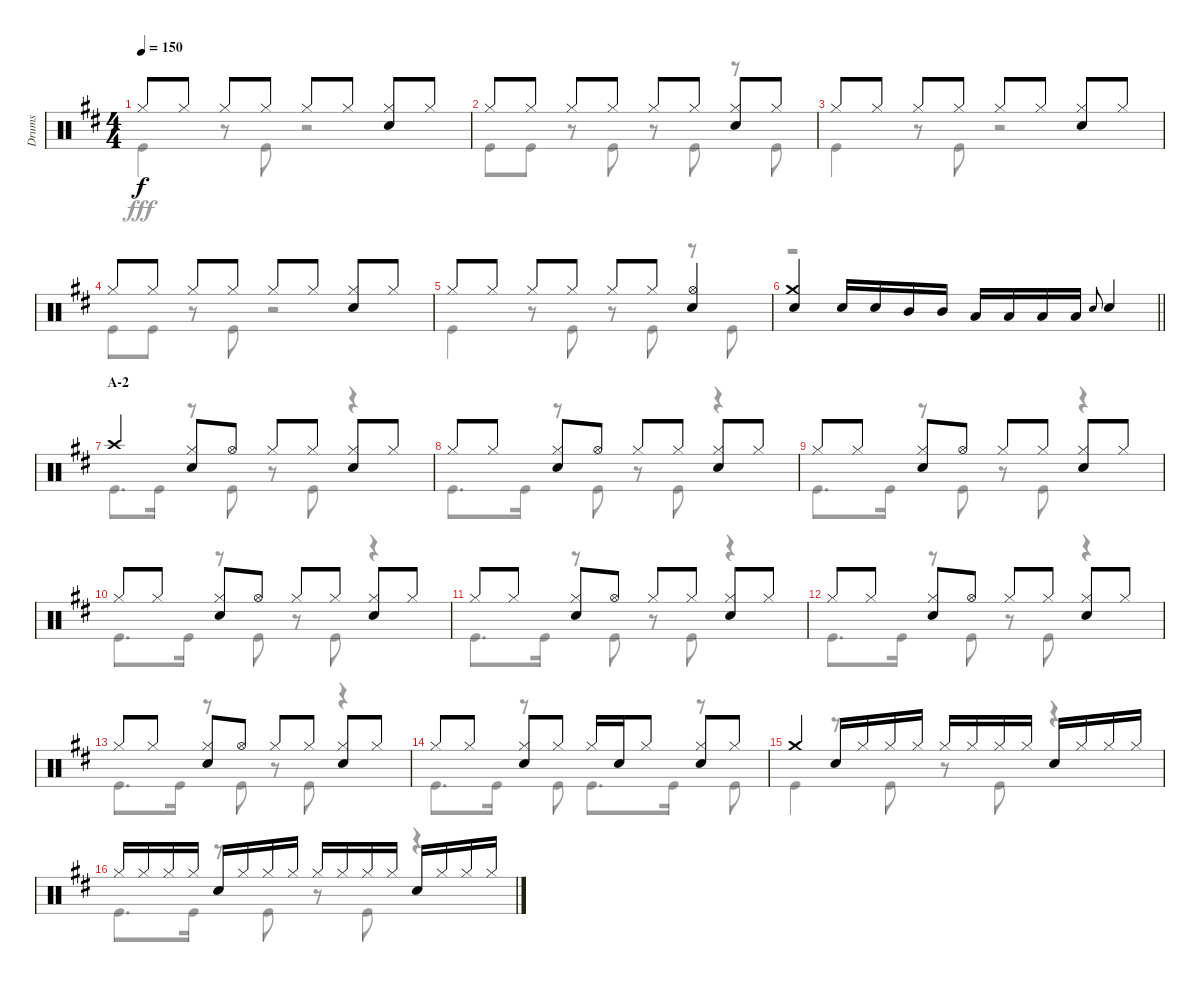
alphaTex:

\track ("Drums" "Drums") {instrument percussion}
\staff {score}
\articulation defaults
\voice
\ts (4 4)
\tempo 150
\clef neutral
\ks d "Hi-Hat (closed)".8{dy f} "Hi-Hat (closed)".8 "Hi-Hat (closed)".8 "Hi-Hat (closed)".8 "Hi-Hat (closed)".8 "Hi-Hat (closed)".8
("Hi-Hat (closed)" "Snare (hit) 2").8 "Hi-Hat (closed)".8 |
"Hi-Hat (closed)".8 "Hi-Hat (closed)".8 "Hi-Hat (closed)".8 "Hi-Hat (closed)".8 "Hi-Hat (closed)".8 "Hi-Hat (closed)".8 ("Hi-Hat (closed)" "Snare (hit) 2").8 "Hi-Hat (closed)".8 |
"Hi-Hat (closed)".8 "Hi-Hat (closed)".8 "Hi-Hat (closed)".8 "Hi-Hat (closed)".8 "Hi-Hat (closed)".8 "Hi-Hat (closed)".8 ("Hi-Hat (closed)" "Snare (hit) 2").8 "Hi-Hat (closed)".8 |
"Hi-Hat (closed)".8 "Hi-Hat (closed)".8 "Hi-Hat (closed)".8 "Hi-Hat (closed)".8 "Hi-Hat (closed)".8 "Hi-Hat (closed)".8 ("Hi-Hat (closed)" "Snare (hit) 2").8 "Hi-Hat (closed)".8 |
"Hi-Hat (closed)".8 "Hi-Hat (closed)".8 "Hi-Hat (closed)".8 "Hi-Hat (closed)".8 "Hi-Hat (closed)".8 "Hi-Hat (closed)".8 ("Hi-Hat (open)" "Snare (hit) 2").4 |
\barLineRight lightlight
("Crash medium (hit)" "Snare (hit) 2").4 "Snare (hit) 2".16 "Snare (hit) 2".16 "Mid Tom (hit)".16 "Mid Tom (hit)".16 "Low Tom (hit)".16 "Low Tom (hit)".16 "Low Tom (hit)".16 "Low Tom (hit)".16 "Snare (hit) 2".8{gr onbeat} "Snare (hit) 2".4 |
\section ("" "A-2")
"Crash high (hit)".4 ("Hi-Hat (closed)" "Snare (hit) 2").8 "Hi-Hat (open)".8 "Hi-Hat (closed)".8 "Hi-Hat (closed)".8 ("Hi-Hat (closed)" "Snare (hit) 2").8 "Hi-Hat (closed)".8 |
"Hi-Hat (closed)".8 "Hi-Hat (closed)".8 ("Hi-Hat (closed)" "Snare (hit) 2").8 "Hi-Hat (open)".8 "Hi-Hat (closed)".8 "Hi-Hat (closed)".8 ("Hi-Hat (closed)" "Snare (hit) 2").8 "Hi-Hat (closed)".8 |
"Hi-Hat (closed)".8 "Hi-Hat (closed)".8 ("Hi-Hat (closed)" "Snare (hit) 2").8 "Hi-Hat (open)".8 "Hi-Hat (closed)".8 "Hi-Hat (closed)".8 ("Hi-Hat (closed)" "Snare (hit) 2").8 "Hi-Hat (closed)".8 |
"Hi-Hat (closed)".8 "Hi-Hat (closed)".8 ("Hi-Hat (closed)" "Snare (hit) 2").8 "Hi-Hat (open)".8 "Hi-Hat (closed)".8 "Hi-Hat (closed)".8 ("Hi-Hat (closed)" "Snare (hit) 2").8 "Hi-Hat (closed)".8 |
"Hi-Hat (closed)".8 "Hi-Hat (closed)".8 ("Hi-Hat (closed)" "Snare (hit) 2").8 "Hi-Hat (open)".8 "Hi-Hat (closed)".8 "Hi-Hat (closed)".8 ("Hi-Hat (closed)" "Snare (hit) 2").8 "Hi-Hat (closed)".8 |
"Hi-Hat (closed)".8 "Hi-Hat (closed)".8 ("Hi-Hat (closed)" "Snare (hit) 2").8 "Hi-Hat (open)".8 "Hi-Hat (closed)".8 "Hi-Hat (closed)".8 ("Hi-Hat (closed)" "Snare (hit) 2").8 "Hi-Hat (closed)".8 |
"Hi-Hat (closed)".8 "Hi-Hat (closed)".8 ("Hi-Hat (closed)" "Snare (hit) 2").8 "Hi-Hat (open)".8 "Hi-Hat (closed)".8 "Hi-Hat (closed)".8 ("Hi-Hat (closed)" "Snare (hit) 2").8 "Hi-Hat (closed)".8 |
"Hi-Hat (closed)".8 "Hi-Hat (closed)".8 ("Hi-Hat (closed)" "Snare (hit) 2").8 "Hi-Hat (closed)".8 "Hi-Hat (closed)".16 "Snare (hit) 2".16 "Hi-Hat (closed)".8 ("Hi-Hat (closed)" "Snare (hit) 2").8 "Hi-Hat (closed)".8 |
"Crash medium (hit)".4 "Snare (hit) 2".16 "Hi-Hat (closed)".16 "Hi-Hat (closed)".16 "Hi-Hat (closed)".16 "Hi-Hat (closed)".16 "Hi-Hat (closed)".16 "Hi-Hat (closed)".16 "Hi-Hat (closed)".16 "Snare (hit) 2".16 "Hi-Hat (closed)".16 "Hi-Hat (closed)".16 "Hi-Hat (closed)".16 |
"Hi-Hat (closed)".16 "Hi-Hat (closed)".16 "Hi-Hat (closed)".16 "Hi-Hat (closed)".16 "Snare (hit) 2".16 "Hi-Hat (closed)".16 "Hi-Hat (closed)".16 "Hi-Hat (closed)".16 "Hi-Hat (closed)".16 "Hi-Hat (closed)".16 "Hi-Hat (closed)".16 "Hi-Hat (closed)".16 "Snare (hit) 2".16 "Hi-Hat (closed)".16 "Hi-Hat (closed)".16 "Hi-Hat (closed)".16
\voice
\clef neutral
\ottava regular
\simile none
\ks d "Kick (hit)".4{dy fff}
r.8 "Kick (hit)".8 r.2 |
"Kick (hit)".8 "Kick (hit)".8 r.8 "Kick (hit)".8 r.8 "Kick (hit)".8 r.8 "Kick (hit)".8 |
"Kick (hit)".4 r.8 "Kick (hit)".8 r.2 |
"Kick (hit)".8 "Kick (hit)".8 r.8 "Kick (hit)".8 r.2 |
"Kick (hit)".4 r.8 "Kick (hit)".8 r.8 "Kick (hit)".8 r.8 "Kick (hit)".8 |
\barLineRight lightlight
r.1 |
"Kick (hit)".8{d} "Kick (hit)".16 r.8 "Kick (hit)".8 r.8 "Kick (hit)".8 r.4 |
"Kick (hit)".8{d} "Kick (hit)".16 r.8 "Kick (hit)".8 r.8 "Kick (hit)".8 r.4 |
"Kick (hit)".8{d} "Kick (hit)".16 r.8 "Kick (hit)".8 r.8 "Kick (hit)".8 r.4 |
"Kick (hit)".8{d} "Kick (hit)".16 r.8 "Kick (hit)".8 r.8 "Kick (hit)".8 r.4 |
"Kick (hit)".8{d} "Kick (hit)".16 r.8 "Kick (hit)".8 r.8 "Kick (hit)".8 r.4 |
"Kick (hit)".8{d} "Kick (hit)".16 r.8 "Kick (hit)".8 r.8 "Kick (hit)".8 r.4 |
"Kick (hit)".8{d} "Kick (hit)".16 r.8 "Kick (hit)".8 r.8 "Kick (hit)".8 r.4 |
"Kick (hit)".8{d} "Kick (hit)".16 r.8 "Kick (hit)".8 "Kick (hit)".8{d} "Kick (hit)".16 r.8 "Kick (hit)".8 |
"Kick (hit)".4 r.8 "Kick (hit)".8 r.8 "Kick (hit)".8 r.4 |
"Kick (hit)".8{d} "Kick (hit)".16 r.8 "Kick (hit)".8 r.8 "Kick (hit)".8 r.4
